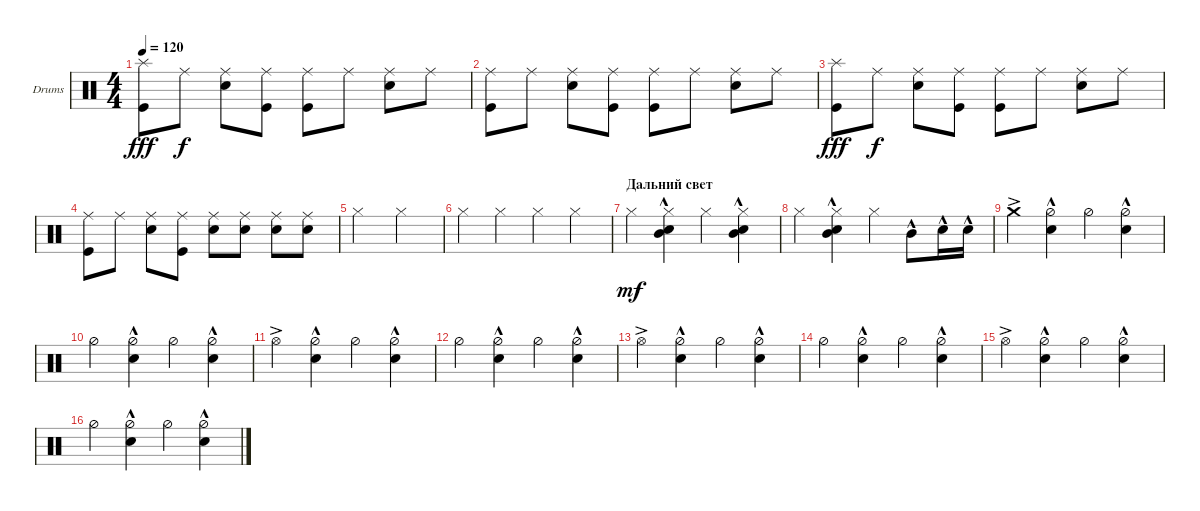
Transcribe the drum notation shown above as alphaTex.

\defaultSystemsLayout 4
\bracketExtendMode nobrackets
\firstSystemTrackNameOrientation horizontal
\otherSystemsTrackNameOrientation horizontal
\track ("Ударные" "Drums") {instrument percussion}
\staff {score}
\articulation defaults
\ts (4 4)
\tempo 120
\clef neutral
\ks c
("Kick (hit)" "Splash (hit)").8{dy fff} "Ride (middle)".8{dy f} ("Ride (middle)" "Snare (hit) 2").8 ("Kick (hit)" "Ride (middle)").8 ("Kick (hit)" "Ride (middle)").8 "Ride (middle)".8 ("Ride (middle)" "Snare (hit) 2").8 "Ride (middle)".8 |
("Kick (hit)" "Ride (middle)").8 "Ride (middle)".8 ("Ride (middle)" "Snare (hit) 2").8 ("Kick (hit)" "Ride (middle)").8 ("Kick (hit)" "Ride (middle)").8 "Ride (middle)".8 ("Ride (middle)" "Snare (hit) 2").8 "Ride (middle)".8 |
("Kick (hit)" "Splash (hit)").8{dy fff} "Ride (middle)".8{dy f} ("Ride (middle)" "Snare (hit) 2").8 ("Kick (hit)" "Ride (middle)").8 ("Kick (hit)" "Ride (middle)").8 "Ride (middle)".8 ("Ride (middle)" "Snare (hit) 2").8 "Ride (middle)".8 |
("Kick (hit)" "Ride (middle)").8 "Ride (middle)".8 ("Ride (middle)" "Snare (hit) 2").8 ("Kick (hit)" "Ride (middle)").8 ("Ride (middle)" "Snare (hit) 2").8 ("Ride (middle)" "Snare (hit) 2").8 ("Ride (middle)" "Snare (hit) 2").8 ("Ride (middle)" "Snare (hit) 2").8 |
"Hi-Hat (closed)".2 "Hi-Hat (closed)".2 |
"Hi-Hat (closed)".4 "Hi-Hat (closed)".4 "Hi-Hat (closed)".4 "Hi-Hat (closed)".4 |
\section ("" "Дальний свет")
"Hi-Hat (closed)".4{dy mf} ("Hi-Hat (closed)" "Snare (hit) 2"{hac} "Mid Tom (hit)").4 "Hi-Hat (closed)".4 ("Hi-Hat (closed)" "Snare (hit) 2"{hac} "Mid Tom (hit)").4 |
"Hi-Hat (closed)".4 ("Hi-Hat (closed)" "Snare (hit) 2"{hac} "Mid Tom (hit)").4 "Hi-Hat (closed)".4 "Mid Tom (hit)"{hac}.8 "Snare (hit) 2"{hac}.16 "Snare (hit) 2"{hac}.16 |
"Crash medium (hit)"{ac}.4 ("Hi-Hat (half)" "Snare (hit) 2"{hac}).4 "Hi-Hat (half)".4 ("Hi-Hat (half)" "Snare (hit) 2"{hac}).4 |
"Hi-Hat (half)".4 ("Hi-Hat (half)" "Snare (hit) 2"{hac}).4 "Hi-Hat (half)".4 ("Hi-Hat (half)" "Snare (hit) 2"{hac}).4 |
"Hi-Hat (open)"{ac}.4 ("Hi-Hat (half)" "Snare (hit) 2"{hac}).4 "Hi-Hat (half)".4 ("Hi-Hat (half)" "Snare (hit) 2"{hac}).4 |
"Hi-Hat (half)".4 ("Hi-Hat (half)" "Snare (hit) 2"{hac}).4 "Hi-Hat (half)".4 ("Hi-Hat (half)" "Snare (hit) 2"{hac}).4 |
"Hi-Hat (open)"{ac}.4 ("Hi-Hat (half)" "Snare (hit) 2"{hac}).4 "Hi-Hat (half)".4 ("Hi-Hat (half)" "Snare (hit) 2"{hac}).4 |
"Hi-Hat (half)".4 ("Hi-Hat (half)" "Snare (hit) 2"{hac}).4 "Hi-Hat (half)".4 ("Hi-Hat (half)" "Snare (hit) 2"{hac}).4 |
"Hi-Hat (open)"{ac}.4 ("Hi-Hat (half)" "Snare (hit) 2"{hac}).4 "Hi-Hat (half)".4 ("Hi-Hat (half)" "Snare (hit) 2"{hac}).4 |
"Hi-Hat (half)".4 ("Hi-Hat (half)" "Snare (hit) 2"{hac}).4 "Hi-Hat (half)".4 ("Hi-Hat (half)" "Snare (hit) 2"{hac}).4
